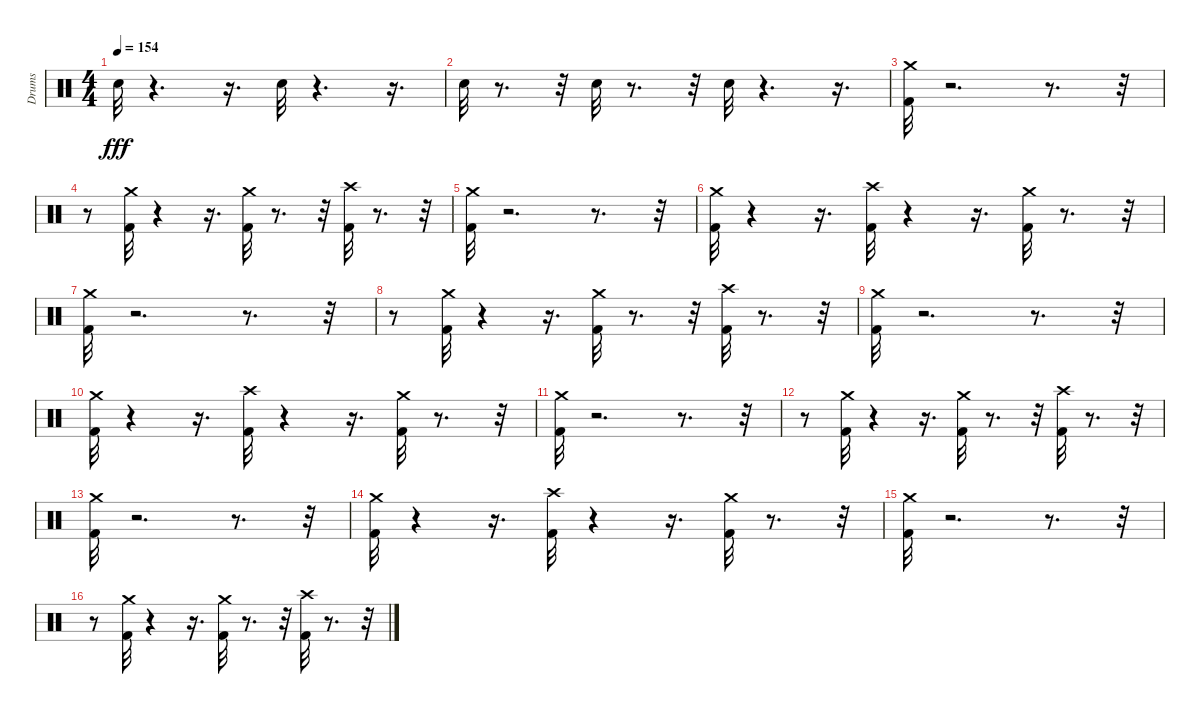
\track ("Drums" "Drums") {instrument percussion}
\staff {score}
\articulation defaults
\ts (4 4)
\tempo 154
\clef neutral
\ks c "Hand Clap (hit)".32{dy fff}
r.4{d} r.16{d} "Hand Clap (hit)".32 r.4{d} r.16{d} |
"Hand Clap (hit)".32 r.8{d} r.32 "Hand Clap (hit)".32 r.8{d} r.32 "Hand Clap (hit)".32 r.4{d} r.16{d} |
("Crash medium (hit)" "Kick (hit) 2").32 r.2{d} r.8{d} r.32 |
r.8 ("Crash medium (hit)" "Kick (hit) 2").32 r.4 r.16{d} ("Kick (hit) 2" "Crash medium (hit)").32 r.8{d} r.32 ("Crash high (hit)" "Kick (hit) 2").32 r.8{d} r.32 |
("Crash medium (hit)" "Kick (hit) 2").32 r.2{d} r.8{d} r.32 |
("Crash medium (hit)" "Kick (hit) 2").32 r.4 r.16{d} ("Crash high (hit)" "Kick (hit) 2").32 r.4 r.16{d} ("Kick (hit) 2" "Crash medium (hit)").32 r.8{d} r.32 |
("Crash medium (hit)" "Kick (hit) 2").32 r.2{d} r.8{d} r.32 |
r.8 ("Crash medium (hit)" "Kick (hit) 2").32 r.4 r.16{d} ("Kick (hit) 2" "Crash medium (hit)").32 r.8{d} r.32 ("Crash high (hit)" "Kick (hit) 2").32 r.8{d} r.32 |
("Crash medium (hit)" "Kick (hit) 2").32 r.2{d} r.8{d} r.32 |
("Crash medium (hit)" "Kick (hit) 2").32 r.4 r.16{d} ("Crash high (hit)" "Kick (hit) 2").32 r.4 r.16{d} ("Kick (hit) 2" "Crash medium (hit)").32 r.8{d} r.32 |
("Crash medium (hit)" "Kick (hit) 2").32 r.2{d} r.8{d} r.32 |
r.8 ("Crash medium (hit)" "Kick (hit) 2").32 r.4 r.16{d} ("Kick (hit) 2" "Crash medium (hit)").32 r.8{d} r.32 ("Crash high (hit)" "Kick (hit) 2").32 r.8{d} r.32 |
("Crash medium (hit)" "Kick (hit) 2").32 r.2{d} r.8{d} r.32 |
("Crash medium (hit)" "Kick (hit) 2").32 r.4 r.16{d} ("Crash high (hit)" "Kick (hit) 2").32 r.4 r.16{d} ("Kick (hit) 2" "Crash medium (hit)").32 r.8{d} r.32 |
("Crash medium (hit)" "Kick (hit) 2").32 r.2{d} r.8{d} r.32 |
r.8 ("Crash medium (hit)" "Kick (hit) 2").32 r.4 r.16{d} ("Kick (hit) 2" "Crash medium (hit)").32 r.8{d} r.32 ("Crash high (hit)" "Kick (hit) 2").32 r.8{d} r.32
